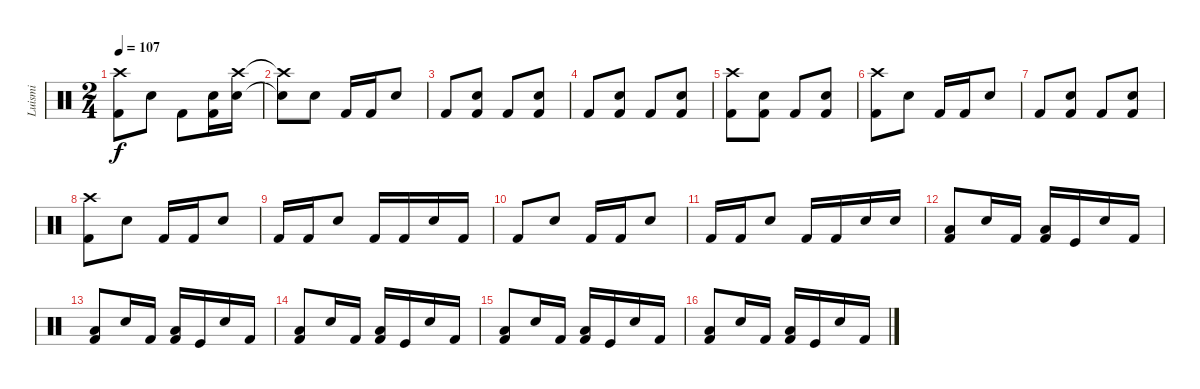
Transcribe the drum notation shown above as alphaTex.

\track ("Luismi" "Luismi") {instrument percussion}
\staff {score}
\articulation defaults
\ts (2 4)
\tempo 107
\clef neutral
\ks c
("Crash high (hit)" "Kick (hit) 2").8{dy f} "Snare (hit) 2".8 "Kick (hit) 2".8 ("Snare (hit) 2" "Kick (hit) 2").16 ("Crash high (hit)" "Snare (hit) 2").16 |
("Crash high (hit)"{t} "Snare (hit)"{t}).8 "Snare (hit) 2".8 "Kick (hit) 2".16 "Kick (hit) 2".16 "Snare (hit) 2".8 |
"Kick (hit) 2".8 ("Snare (hit) 2" "Kick (hit) 2").8 "Kick (hit) 2".8 ("Snare (hit) 2" "Kick (hit) 2").8 |
"Kick (hit) 2".8 ("Snare (hit) 2" "Kick (hit) 2").8 "Kick (hit) 2".8 ("Snare (hit) 2" "Kick (hit) 2").8 |
("Crash high (hit)" "Kick (hit) 2").8 ("Snare (hit) 2" "Kick (hit) 2").8 "Kick (hit) 2".8 ("Snare (hit) 2" "Kick (hit) 2").8 |
("Crash high (hit)" "Kick (hit) 2").8 "Snare (hit) 2".8 "Kick (hit) 2".16 "Kick (hit) 2".16 "Snare (hit) 2".8 |
"Kick (hit) 2".8 ("Snare (hit) 2" "Kick (hit) 2").8 "Kick (hit) 2".8 ("Snare (hit) 2" "Kick (hit) 2").8 |
("Crash high (hit)" "Kick (hit) 2").8 "Snare (hit) 2".8 "Kick (hit) 2".16 "Kick (hit) 2".16 "Snare (hit) 2".8 |
"Kick (hit) 2".16 "Kick (hit) 2".16 "Snare (hit) 2".8 "Kick (hit) 2".16 "Kick (hit) 2".16 "Snare (hit) 2".16 "Kick (hit) 2".16 |
"Kick (hit) 2".8 "Snare (hit) 2".8 "Kick (hit) 2".16 "Kick (hit) 2".16 "Snare (hit) 2".8 |
"Kick (hit) 2".16 "Kick (hit) 2".16 "Snare (hit) 2".8 "Kick (hit) 2".16 "Kick (hit) 2".16 "Snare (hit) 2".16 "Snare (hit) 2".16 |
("Low Tom (hit)" "Kick (hit) 2").8 "Electric Snare (hit)".16 "Kick (hit) 2".16 ("Low Tom (hit)" "Kick (hit) 2").16 "Kick (hit)".16 "Electric Snare (hit)".16 "Kick (hit) 2".16 |
("Low Tom (hit)" "Kick (hit) 2").8 "Electric Snare (hit)".16 "Kick (hit) 2".16 ("Low Tom (hit)" "Kick (hit) 2").16 "Kick (hit)".16 "Electric Snare (hit)".16 "Kick (hit) 2".16 |
("Low Tom (hit)" "Kick (hit) 2").8 "Electric Snare (hit)".16 "Kick (hit) 2".16 ("Low Tom (hit)" "Kick (hit) 2").16 "Kick (hit)".16 "Electric Snare (hit)".16 "Kick (hit) 2".16 |
("Low Tom (hit)" "Kick (hit) 2").8 "Electric Snare (hit)".16 "Kick (hit) 2".16 ("Low Tom (hit)" "Kick (hit) 2").16 "Kick (hit)".16 "Electric Snare (hit)".16 "Kick (hit) 2".16 |
("Low Tom (hit)" "Kick (hit) 2").8 "Electric Snare (hit)".16 "Kick (hit) 2".16 ("Low Tom (hit)" "Kick (hit) 2").16 "Kick (hit)".16 "Electric Snare (hit)".16 "Kick (hit) 2".16
